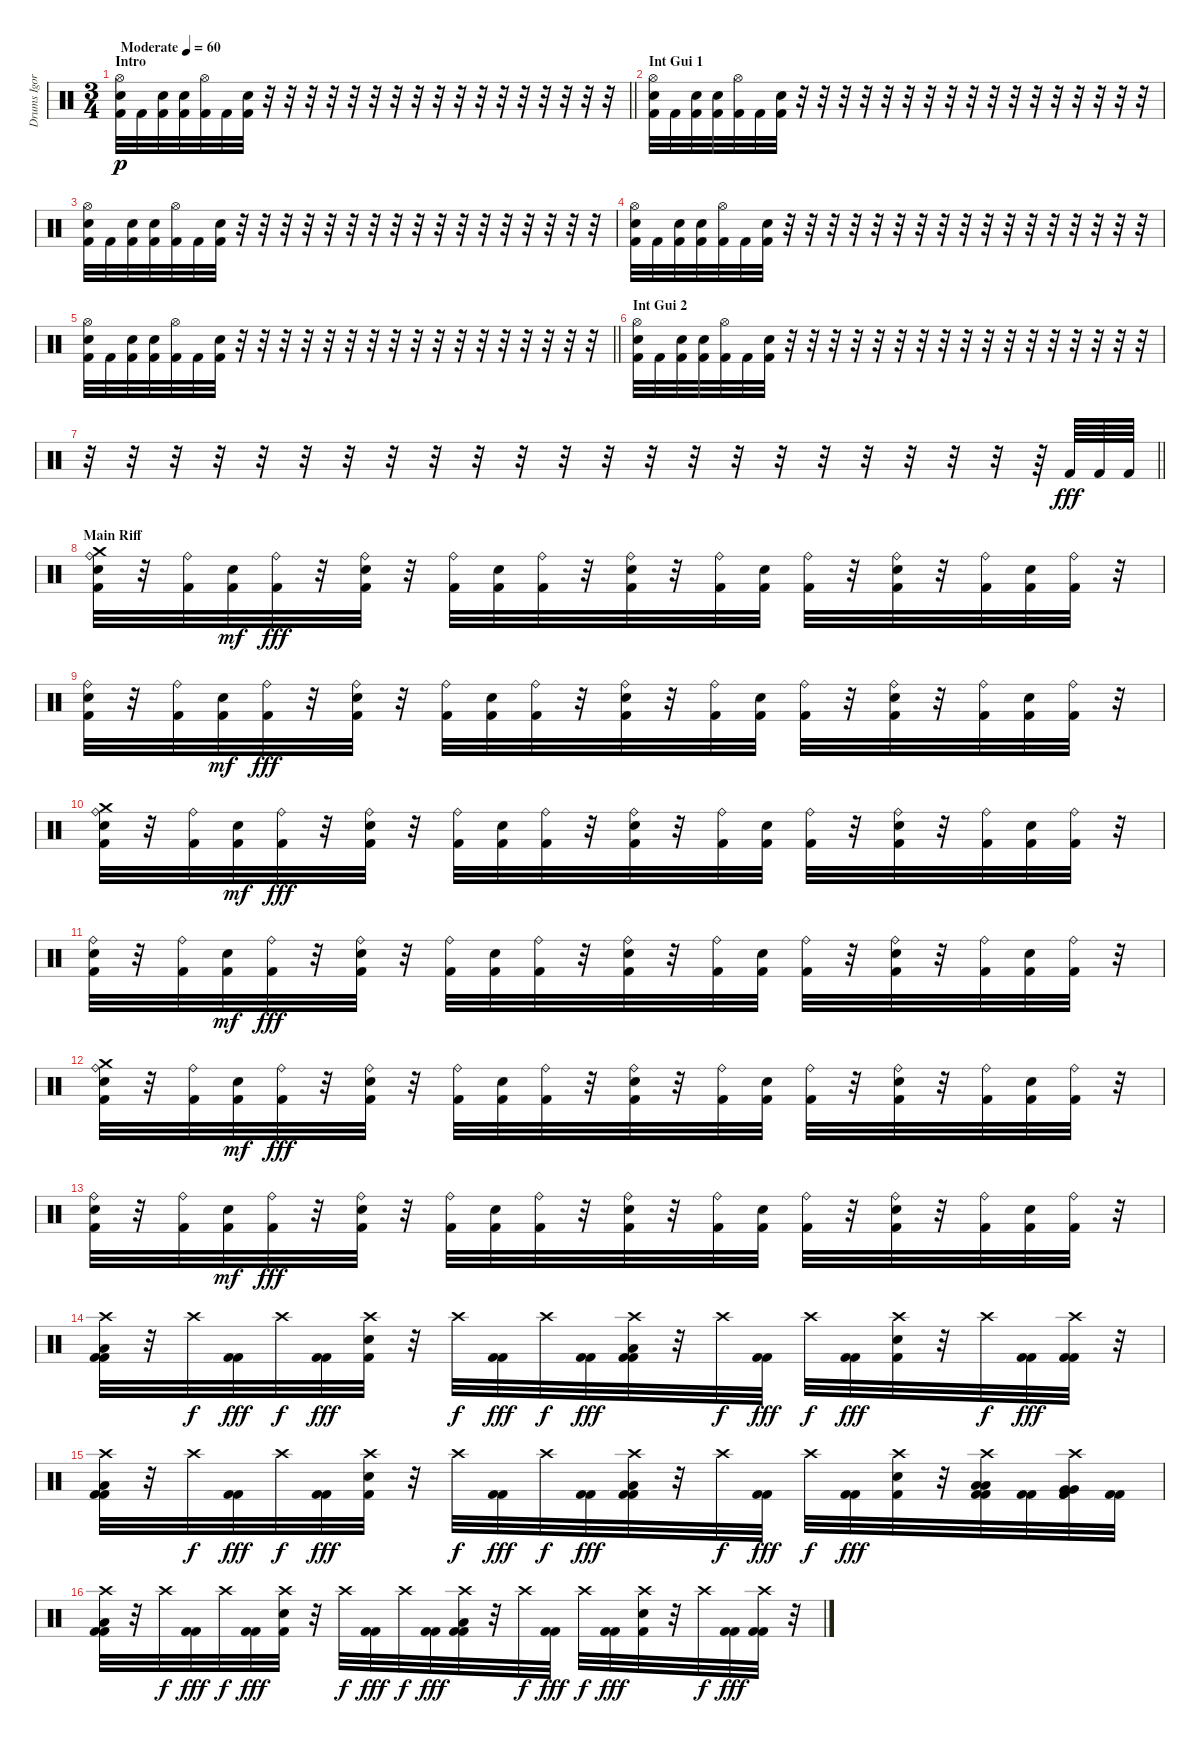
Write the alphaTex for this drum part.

\track ("Drums Igor" "Drums Igor") {instrument percussion}
\staff {score}
\articulation defaults
\ts (3 4)
\section ("" "Intro")
\tempo (60 "Moderate")
\clef neutral
\barLineRight lightlight
\ks c
("Hi-Hat (open)" "Electric Snare (hit)" "Kick (hit) 2").32{dy p} "Kick (hit) 2".32 ("Electric Snare (hit)" "Kick (hit) 2").32 ("Electric Snare (hit)" "Kick (hit) 2").32 ("Hi-Hat (open)" "Kick (hit) 2").32 "Kick (hit) 2".32 ("Electric Snare (hit)" "Kick (hit) 2").32 r.32 r.32 r.32 r.32 r.32 r.32 r.32 r.32 r.32 r.32 r.32 r.32 r.32 r.32 r.32 r.32 r.32 |
\section ("" "Int Gui 1")
("Hi-Hat (open)" "Electric Snare (hit)" "Kick (hit) 2").32 "Kick (hit) 2".32 ("Electric Snare (hit)" "Kick (hit) 2").32 ("Electric Snare (hit)" "Kick (hit) 2").32 ("Hi-Hat (open)" "Kick (hit) 2").32 "Kick (hit) 2".32 ("Electric Snare (hit)" "Kick (hit) 2").32 r.32 r.32 r.32 r.32 r.32 r.32 r.32 r.32 r.32 r.32 r.32 r.32 r.32 r.32 r.32 r.32 r.32 |
("Hi-Hat (open)" "Electric Snare (hit)" "Kick (hit) 2").32 "Kick (hit) 2".32 ("Electric Snare (hit)" "Kick (hit) 2").32 ("Electric Snare (hit)" "Kick (hit) 2").32 ("Hi-Hat (open)" "Kick (hit) 2").32 "Kick (hit) 2".32 ("Electric Snare (hit)" "Kick (hit) 2").32 r.32 r.32 r.32 r.32 r.32 r.32 r.32 r.32 r.32 r.32 r.32 r.32 r.32 r.32 r.32 r.32 r.32 |
("Hi-Hat (open)" "Electric Snare (hit)" "Kick (hit) 2").32 "Kick (hit) 2".32 ("Electric Snare (hit)" "Kick (hit) 2").32 ("Electric Snare (hit)" "Kick (hit) 2").32 ("Hi-Hat (open)" "Kick (hit) 2").32 "Kick (hit) 2".32 ("Electric Snare (hit)" "Kick (hit) 2").32 r.32 r.32 r.32 r.32 r.32 r.32 r.32 r.32 r.32 r.32 r.32 r.32 r.32 r.32 r.32 r.32 r.32 |
\barLineRight lightlight
("Hi-Hat (open)" "Electric Snare (hit)" "Kick (hit) 2").32 "Kick (hit) 2".32 ("Electric Snare (hit)" "Kick (hit) 2").32 ("Electric Snare (hit)" "Kick (hit) 2").32 ("Hi-Hat (open)" "Kick (hit) 2").32 "Kick (hit) 2".32 ("Electric Snare (hit)" "Kick (hit) 2").32 r.32 r.32 r.32 r.32 r.32 r.32 r.32 r.32 r.32 r.32 r.32 r.32 r.32 r.32 r.32 r.32 r.32 |
\section ("" "Int Gui 2")
("Hi-Hat (open)" "Electric Snare (hit)" "Kick (hit) 2").32 "Kick (hit) 2".32 ("Electric Snare (hit)" "Kick (hit) 2").32 ("Electric Snare (hit)" "Kick (hit) 2").32 ("Hi-Hat (open)" "Kick (hit) 2").32 "Kick (hit) 2".32 ("Electric Snare (hit)" "Kick (hit) 2").32 r.32 r.32 r.32 r.32 r.32 r.32 r.32 r.32 r.32 r.32 r.32 r.32 r.32 r.32 r.32 r.32 r.32 |
\barLineRight lightlight
r.32 r.32 r.32 r.32 r.32 r.32 r.32 r.32 r.32 r.32 r.32 r.32 r.32 r.32 r.32 r.32 r.32 r.32 r.32 r.32 r.32 r.32 r.64 "Kick (hit) 2".64{dy fff} "Kick (hit) 2".64 "Kick (hit) 2".64 |
\section ("" "Main Riff")
("Ride (bell)" "Crash medium (hit)" "Electric Snare (hit)" "Kick (hit) 2").32 r.32 ("Ride (bell)" "Kick (hit) 2").32 ("Electric Snare (hit)" "Kick (hit) 2").32{dy mf} ("Ride (bell)" "Kick (hit) 2").32{dy fff} r.32 ("Ride (bell)" "Electric Snare (hit)" "Kick (hit) 2").32 r.32 ("Ride (bell)" "Kick (hit) 2").32 ("Electric Snare (hit)" "Kick (hit) 2").32 ("Ride (bell)" "Kick (hit) 2").32 r.32 ("Ride (bell)" "Electric Snare (hit)" "Kick (hit) 2").32 r.32 ("Ride (bell)" "Kick (hit) 2").32 ("Electric Snare (hit)" "Kick (hit) 2").32 ("Ride (bell)" "Kick (hit) 2").32 r.32 ("Ride (bell)" "Electric Snare (hit)" "Kick (hit) 2").32 r.32 ("Ride (bell)" "Kick (hit) 2").32 ("Electric Snare (hit)" "Kick (hit) 2").32 ("Ride (bell)" "Kick (hit) 2").32 r.32 |
("Ride (bell)" "Electric Snare (hit)" "Kick (hit) 2").32 r.32 ("Ride (bell)" "Kick (hit) 2").32 ("Electric Snare (hit)" "Kick (hit) 2").32{dy mf} ("Ride (bell)" "Kick (hit) 2").32{dy fff} r.32 ("Ride (bell)" "Electric Snare (hit)" "Kick (hit) 2").32 r.32 ("Ride (bell)" "Kick (hit) 2").32 ("Electric Snare (hit)" "Kick (hit) 2").32 ("Ride (bell)" "Kick (hit) 2").32 r.32 ("Ride (bell)" "Electric Snare (hit)" "Kick (hit) 2").32 r.32 ("Ride (bell)" "Kick (hit) 2").32 ("Electric Snare (hit)" "Kick (hit) 2").32 ("Ride (bell)" "Kick (hit) 2").32 r.32 ("Ride (bell)" "Electric Snare (hit)" "Kick (hit) 2").32 r.32 ("Ride (bell)" "Kick (hit) 2").32 ("Electric Snare (hit)" "Kick (hit) 2").32 ("Ride (bell)" "Kick (hit) 2").32 r.32 |
("Ride (bell)" "Crash medium (hit)" "Electric Snare (hit)" "Kick (hit) 2").32 r.32 ("Ride (bell)" "Kick (hit) 2").32 ("Electric Snare (hit)" "Kick (hit) 2").32{dy mf} ("Ride (bell)" "Kick (hit) 2").32{dy fff} r.32 ("Ride (bell)" "Electric Snare (hit)" "Kick (hit) 2").32 r.32 ("Ride (bell)" "Kick (hit) 2").32 ("Electric Snare (hit)" "Kick (hit) 2").32 ("Ride (bell)" "Kick (hit) 2").32 r.32 ("Ride (bell)" "Electric Snare (hit)" "Kick (hit) 2").32 r.32 ("Ride (bell)" "Kick (hit) 2").32 ("Electric Snare (hit)" "Kick (hit) 2").32 ("Ride (bell)" "Kick (hit) 2").32 r.32 ("Ride (bell)" "Electric Snare (hit)" "Kick (hit) 2").32 r.32 ("Ride (bell)" "Kick (hit) 2").32 ("Electric Snare (hit)" "Kick (hit) 2").32 ("Ride (bell)" "Kick (hit) 2").32 r.32 |
("Ride (bell)" "Electric Snare (hit)" "Kick (hit) 2").32 r.32 ("Ride (bell)" "Kick (hit) 2").32 ("Electric Snare (hit)" "Kick (hit) 2").32{dy mf} ("Ride (bell)" "Kick (hit) 2").32{dy fff} r.32 ("Ride (bell)" "Electric Snare (hit)" "Kick (hit) 2").32 r.32 ("Ride (bell)" "Kick (hit) 2").32 ("Electric Snare (hit)" "Kick (hit) 2").32 ("Ride (bell)" "Kick (hit) 2").32 r.32 ("Ride (bell)" "Electric Snare (hit)" "Kick (hit) 2").32 r.32 ("Ride (bell)" "Kick (hit) 2").32 ("Electric Snare (hit)" "Kick (hit) 2").32 ("Ride (bell)" "Kick (hit) 2").32 r.32 ("Ride (bell)" "Electric Snare (hit)" "Kick (hit) 2").32 r.32 ("Ride (bell)" "Kick (hit) 2").32 ("Electric Snare (hit)" "Kick (hit) 2").32 ("Ride (bell)" "Kick (hit) 2").32 r.32 |
("Ride (bell)" "Crash medium (hit)" "Electric Snare (hit)" "Kick (hit) 2").32 r.32 ("Ride (bell)" "Kick (hit) 2").32 ("Electric Snare (hit)" "Kick (hit) 2").32{dy mf} ("Ride (bell)" "Kick (hit) 2").32{dy fff} r.32 ("Ride (bell)" "Electric Snare (hit)" "Kick (hit) 2").32 r.32 ("Ride (bell)" "Kick (hit) 2").32 ("Electric Snare (hit)" "Kick (hit) 2").32 ("Ride (bell)" "Kick (hit) 2").32 r.32 ("Ride (bell)" "Electric Snare (hit)" "Kick (hit) 2").32 r.32 ("Ride (bell)" "Kick (hit) 2").32 ("Electric Snare (hit)" "Kick (hit) 2").32 ("Ride (bell)" "Kick (hit) 2").32 r.32 ("Ride (bell)" "Electric Snare (hit)" "Kick (hit) 2").32 r.32 ("Ride (bell)" "Kick (hit) 2").32 ("Electric Snare (hit)" "Kick (hit) 2").32 ("Ride (bell)" "Kick (hit) 2").32 r.32 |
("Ride (bell)" "Electric Snare (hit)" "Kick (hit) 2").32 r.32 ("Ride (bell)" "Kick (hit) 2").32 ("Electric Snare (hit)" "Kick (hit) 2").32{dy mf} ("Ride (bell)" "Kick (hit) 2").32{dy fff} r.32 ("Ride (bell)" "Electric Snare (hit)" "Kick (hit) 2").32 r.32 ("Ride (bell)" "Kick (hit) 2").32 ("Electric Snare (hit)" "Kick (hit) 2").32 ("Ride (bell)" "Kick (hit) 2").32 r.32 ("Ride (bell)" "Electric Snare (hit)" "Kick (hit) 2").32 r.32 ("Ride (bell)" "Kick (hit) 2").32 ("Electric Snare (hit)" "Kick (hit) 2").32 ("Ride (bell)" "Kick (hit) 2").32 r.32 ("Ride (bell)" "Electric Snare (hit)" "Kick (hit) 2").32 r.32 ("Ride (bell)" "Kick (hit) 2").32 ("Electric Snare (hit)" "Kick (hit) 2").32 ("Ride (bell)" "Kick (hit) 2").32 r.32 |
("Crash high (hit)" "Low Floor Tom (hit)" "Kick (hit) 2" "Kick (hit) 2").32 r.32 "Crash high (hit)".32{dy f} ("Kick (hit) 2" "Kick (hit) 2").32{dy fff} "Crash high (hit)".32{dy f} ("Kick (hit) 2" "Kick (hit) 2").32{dy fff} ("Crash high (hit)" "Electric Snare (hit)" "Kick (hit) 2").32 r.32 "Crash high (hit)".32{dy f} ("Kick (hit) 2" "Kick (hit) 2").32{dy fff} "Crash high (hit)".32{dy f} ("Kick (hit) 2" "Kick (hit) 2").32{dy fff} ("Crash high (hit)" "Low Floor Tom (hit)" "Kick (hit) 2" "Kick (hit) 2").32 r.32 "Crash high (hit)".32{dy f} ("Kick (hit) 2" "Kick (hit) 2").32{dy fff} "Crash high (hit)".32{dy f} ("Kick (hit) 2" "Kick (hit) 2").32{dy fff} ("Crash high (hit)" "Electric Snare (hit)" "Kick (hit) 2").32 r.32 "Crash high (hit)".32{dy f} ("Kick (hit) 2" "Kick (hit) 2").32{dy fff} ("Crash high (hit)" "Kick (hit) 2" "Kick (hit) 2").32 r.32 |
("Crash high (hit)" "Low Floor Tom (hit)" "Kick (hit) 2" "Kick (hit) 2").32 r.32 "Crash high (hit)".32{dy f} ("Kick (hit) 2" "Kick (hit) 2").32{dy fff} "Crash high (hit)".32{dy f} ("Kick (hit) 2" "Kick (hit) 2").32{dy fff} ("Crash high (hit)" "Electric Snare (hit)" "Kick (hit) 2").32 r.32 "Crash high (hit)".32{dy f} ("Kick (hit) 2" "Kick (hit) 2").32{dy fff} "Crash high (hit)".32{dy f} ("Kick (hit) 2" "Kick (hit) 2").32{dy fff} ("Crash high (hit)" "Low Floor Tom (hit)" "Kick (hit) 2" "Kick (hit) 2").32 r.32 "Crash high (hit)".32{dy f} ("Kick (hit) 2" "Kick (hit) 2").32{dy fff} "Crash high (hit)".32{dy f} ("Kick (hit) 2" "Kick (hit) 2").32{dy fff} ("Crash high (hit)" "Electric Snare (hit)" "Kick (hit) 2").32 r.32 ("Crash high (hit)" "Low Tom (hit)" "Low Tom (hit)" "Kick (hit) 2" "Kick (hit) 2").32 ("Kick (hit) 2" "Kick (hit) 2").32 ("Crash high (hit)" "Very Low Tom (hit)" "Very Low Tom (hit)" "Kick (hit) 2" "Kick (hit) 2").32 ("Kick (hit) 2" "Kick (hit) 2").32 |
("Crash high (hit)" "Low Floor Tom (hit)" "Kick (hit) 2" "Kick (hit) 2").32 r.32 "Crash high (hit)".32{dy f} ("Kick (hit) 2" "Kick (hit) 2").32{dy fff} "Crash high (hit)".32{dy f} ("Kick (hit) 2" "Kick (hit) 2").32{dy fff} ("Crash high (hit)" "Electric Snare (hit)" "Kick (hit) 2").32 r.32 "Crash high (hit)".32{dy f} ("Kick (hit) 2" "Kick (hit) 2").32{dy fff} "Crash high (hit)".32{dy f} ("Kick (hit) 2" "Kick (hit) 2").32{dy fff} ("Crash high (hit)" "Low Floor Tom (hit)" "Kick (hit) 2" "Kick (hit) 2").32 r.32 "Crash high (hit)".32{dy f} ("Kick (hit) 2" "Kick (hit) 2").32{dy fff} "Crash high (hit)".32{dy f} ("Kick (hit) 2" "Kick (hit) 2").32{dy fff} ("Crash high (hit)" "Electric Snare (hit)" "Kick (hit) 2").32 r.32 "Crash high (hit)".32{dy f} ("Kick (hit) 2" "Kick (hit) 2").32{dy fff} ("Crash high (hit)" "Kick (hit) 2" "Kick (hit) 2").32 r.32
